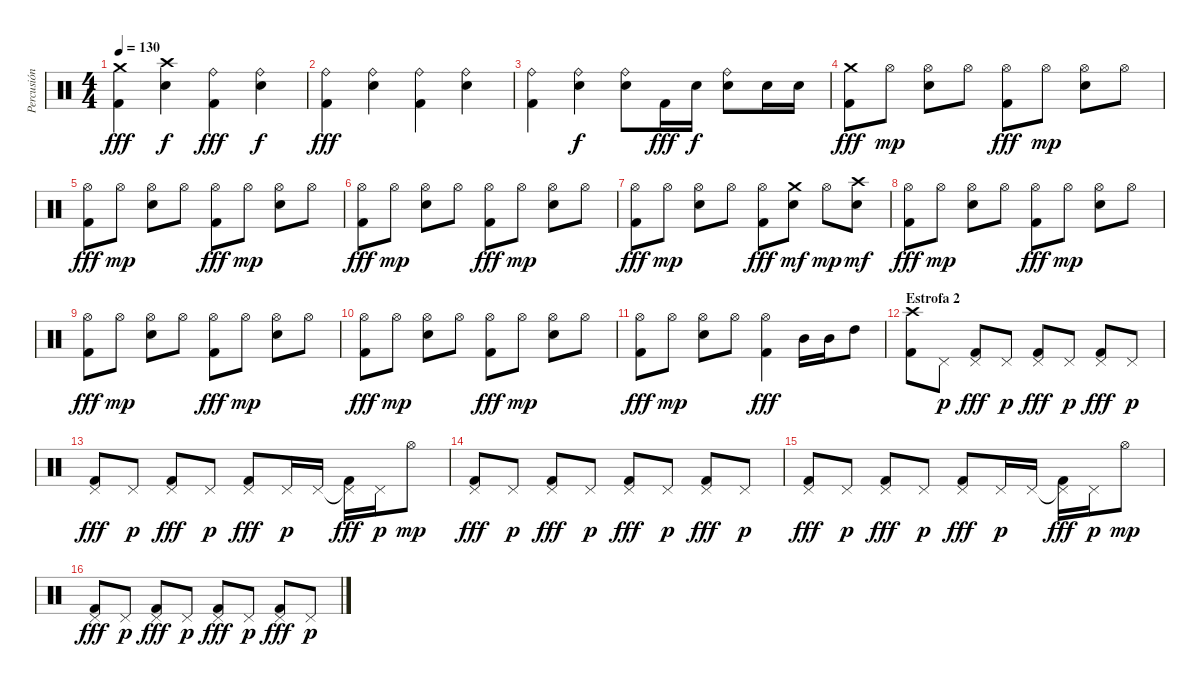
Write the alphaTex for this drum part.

\track ("Percusión" "Percusión") {instrument percussion}
\staff {score}
\articulation defaults
\ts (4 4)
\tempo 130
\clef neutral
\ks c
("Crash medium (hit)" "Kick (hit) 2").4{dy fff} ("Crash high (hit)" "Snare (hit) 2").4{dy f} ("Ride (bell)" "Kick (hit) 2").4{dy fff} ("Ride (bell)" "Snare (hit) 2").4{dy f} |
("Ride (bell)" "Kick (hit) 2").4{dy fff} ("Ride (bell)" "Snare (hit) 2").4 ("Ride (bell)" "Kick (hit) 2").4 ("Ride (bell)" "Snare (hit) 2").4 |
("Ride (bell)" "Kick (hit) 2").4 ("Ride (bell)" "Snare (hit) 2").4{dy f} ("Ride (bell)" "Snare (hit) 2").8 "Kick (hit) 2".16{dy fff} "Snare (hit) 2".16{dy f} ("Ride (bell)" "Snare (hit) 2").8 "Snare (hit) 2".16 "Snare (hit) 2".16 |
("Crash medium (hit)" "Kick (hit) 2").8{dy fff} "Hi-Hat (open)".8{dy mp} ("Hi-Hat (open)" "Snare (hit) 2").8 "Hi-Hat (open)".8 ("Hi-Hat (open)" "Kick (hit) 2").8{dy fff} "Hi-Hat (open)".8{dy mp} ("Hi-Hat (open)" "Snare (hit) 2").8 "Hi-Hat (open)".8 |
("Hi-Hat (open)" "Kick (hit) 2").8{dy fff} "Hi-Hat (open)".8{dy mp} ("Hi-Hat (open)" "Snare (hit) 2").8 "Hi-Hat (open)".8 ("Hi-Hat (open)" "Kick (hit) 2").8{dy fff} "Hi-Hat (open)".8{dy mp} ("Hi-Hat (open)" "Snare (hit) 2").8 "Hi-Hat (open)".8 |
("Hi-Hat (open)" "Kick (hit) 2").8{dy fff} "Hi-Hat (open)".8{dy mp} ("Hi-Hat (open)" "Snare (hit) 2").8 "Hi-Hat (open)".8 ("Hi-Hat (open)" "Kick (hit) 2").8{dy fff} "Hi-Hat (open)".8{dy mp} ("Hi-Hat (open)" "Snare (hit) 2").8 "Hi-Hat (open)".8 |
("Hi-Hat (open)" "Kick (hit) 2").8{dy fff} "Hi-Hat (open)".8{dy mp} ("Hi-Hat (open)" "Snare (hit) 2").8 "Hi-Hat (open)".8 ("Hi-Hat (open)" "Kick (hit) 2").8{dy fff} ("Crash medium (hit)" "Snare (hit) 2").8{dy mf} "Hi-Hat (open)".8{dy mp} ("Crash high (hit)" "Snare (hit) 2").8{dy mf} |
("Hi-Hat (open)" "Kick (hit) 2").8{dy fff} "Hi-Hat (open)".8{dy mp} ("Hi-Hat (open)" "Snare (hit) 2").8 "Hi-Hat (open)".8 ("Hi-Hat (open)" "Kick (hit) 2").8{dy fff} "Hi-Hat (open)".8{dy mp} ("Hi-Hat (open)" "Snare (hit) 2").8 "Hi-Hat (open)".8 |
("Hi-Hat (open)" "Kick (hit) 2").8{dy fff} "Hi-Hat (open)".8{dy mp} ("Hi-Hat (open)" "Snare (hit) 2").8 "Hi-Hat (open)".8 ("Hi-Hat (open)" "Kick (hit) 2").8{dy fff} "Hi-Hat (open)".8{dy mp} ("Hi-Hat (open)" "Snare (hit) 2").8 "Hi-Hat (open)".8 |
("Hi-Hat (open)" "Kick (hit) 2").8{dy fff} "Hi-Hat (open)".8{dy mp} ("Hi-Hat (open)" "Snare (hit) 2").8 "Hi-Hat (open)".8 ("Hi-Hat (open)" "Kick (hit) 2").8{dy fff} "Hi-Hat (open)".8{dy mp} ("Hi-Hat (open)" "Snare (hit) 2").8 "Hi-Hat (open)".8 |
("Hi-Hat (open)" "Kick (hit) 2").8{dy fff} "Hi-Hat (open)".8{dy mp} ("Hi-Hat (open)" "Snare (hit) 2").8 "Hi-Hat (open)".8 ("Hi-Hat (open)" "Kick (hit) 2").4{dy fff} "Mid Tom (hit)".16 "Mid Tom (hit)".16 "High Tom (hit)".8 |
\section ("" "Estrofa 2")
("Crash high (hit)" "Kick (hit) 2").8 "Pedal Hi-Hat (hit)".8{dy p} ("Pedal Hi-Hat (hit)" "Kick (hit) 2").8{dy fff} "Pedal Hi-Hat (hit)".8{dy p} ("Pedal Hi-Hat (hit)" "Kick (hit) 2").8{dy fff} "Pedal Hi-Hat (hit)".8{dy p} ("Pedal Hi-Hat (hit)" "Kick (hit) 2").8{dy fff} "Pedal Hi-Hat (hit)".8{dy p} |
("Pedal Hi-Hat (hit)" "Kick (hit) 2").8{dy fff} "Pedal Hi-Hat (hit)".8{dy p} ("Pedal Hi-Hat (hit)" "Kick (hit) 2").8{dy fff} "Pedal Hi-Hat (hit)".8{dy p} ("Pedal Hi-Hat (hit)" "Kick (hit) 2").8{dy fff} "Pedal Hi-Hat (hit)".16{dy p} "Pedal Hi-Hat (hit)".16 ("Pedal Hi-Hat (hit)"{t} "Kick (hit) 2").16{dy fff} "Pedal Hi-Hat (hit)".16{dy p} "Hi-Hat (open)".8{dy mp} |
("Pedal Hi-Hat (hit)" "Kick (hit) 2").8{dy fff} "Pedal Hi-Hat (hit)".8{dy p} ("Pedal Hi-Hat (hit)" "Kick (hit) 2").8{dy fff} "Pedal Hi-Hat (hit)".8{dy p} ("Pedal Hi-Hat (hit)" "Kick (hit) 2").8{dy fff} "Pedal Hi-Hat (hit)".8{dy p} ("Pedal Hi-Hat (hit)" "Kick (hit) 2").8{dy fff} "Pedal Hi-Hat (hit)".8{dy p} |
("Pedal Hi-Hat (hit)" "Kick (hit) 2").8{dy fff} "Pedal Hi-Hat (hit)".8{dy p} ("Pedal Hi-Hat (hit)" "Kick (hit) 2").8{dy fff} "Pedal Hi-Hat (hit)".8{dy p} ("Pedal Hi-Hat (hit)" "Kick (hit) 2").8{dy fff} "Pedal Hi-Hat (hit)".16{dy p} "Pedal Hi-Hat (hit)".16 ("Pedal Hi-Hat (hit)"{t} "Kick (hit) 2").16{dy fff} "Pedal Hi-Hat (hit)".16{dy p} "Hi-Hat (open)".8{dy mp} |
("Pedal Hi-Hat (hit)" "Kick (hit) 2").8{dy fff} "Pedal Hi-Hat (hit)".8{dy p} ("Pedal Hi-Hat (hit)" "Kick (hit) 2").8{dy fff} "Pedal Hi-Hat (hit)".8{dy p} ("Pedal Hi-Hat (hit)" "Kick (hit) 2").8{dy fff} "Pedal Hi-Hat (hit)".8{dy p} ("Pedal Hi-Hat (hit)" "Kick (hit) 2").8{dy fff} "Pedal Hi-Hat (hit)".8{dy p}
